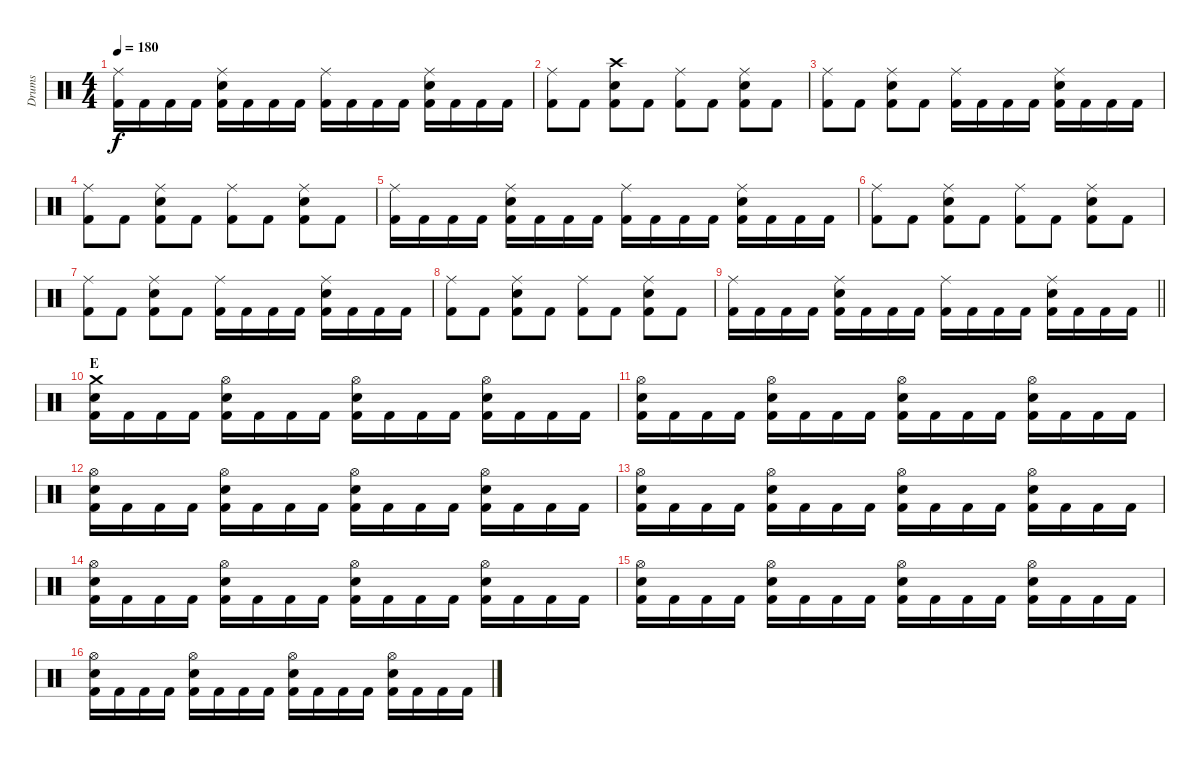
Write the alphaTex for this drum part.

\track ("Drums" "Drums") {instrument percussion}
\staff {score}
\articulation defaults
\ts (4 4)
\tempo 180
\clef neutral
\ks c
("Ride (middle)" "Kick (hit) 2").16{dy f} "Kick (hit) 2".16 "Kick (hit) 2".16 "Kick (hit) 2".16 ("Ride (middle)" "Electric Snare (hit)" "Kick (hit) 2").16 "Kick (hit) 2".16 "Kick (hit) 2".16 "Kick (hit) 2".16 ("Ride (middle)" "Kick (hit) 2").16 "Kick (hit) 2".16 "Kick (hit) 2".16 "Kick (hit) 2".16 ("Ride (middle)" "Electric Snare (hit)" "Kick (hit) 2").16 "Kick (hit) 2".16 "Kick (hit) 2".16 "Kick (hit) 2".16 |
("Ride (middle)" "Kick (hit) 2").8 "Kick (hit) 2".8 ("Crash high (hit)" "Electric Snare (hit)" "Kick (hit) 2").8 "Kick (hit) 2".8 ("Ride (middle)" "Kick (hit) 2").8 "Kick (hit) 2".8 ("Ride (middle)" "Electric Snare (hit)" "Kick (hit) 2").8 "Kick (hit) 2".8 |
("Ride (middle)" "Kick (hit) 2").8 "Kick (hit) 2".8 ("Ride (middle)" "Electric Snare (hit)" "Kick (hit) 2").8 "Kick (hit) 2".8 ("Ride (middle)" "Kick (hit) 2").16 "Kick (hit) 2".16 "Kick (hit) 2".16 "Kick (hit) 2".16 ("Ride (middle)" "Electric Snare (hit)" "Kick (hit) 2").16 "Kick (hit) 2".16 "Kick (hit) 2".16 "Kick (hit) 2".16 |
("Ride (middle)" "Kick (hit) 2").8 "Kick (hit) 2".8 ("Ride (middle)" "Electric Snare (hit)" "Kick (hit) 2").8 "Kick (hit) 2".8 ("Ride (middle)" "Kick (hit) 2").8 "Kick (hit) 2".8 ("Ride (middle)" "Electric Snare (hit)" "Kick (hit) 2").8 "Kick (hit) 2".8 |
("Ride (middle)" "Kick (hit) 2").16 "Kick (hit) 2".16 "Kick (hit) 2".16 "Kick (hit) 2".16 ("Ride (middle)" "Electric Snare (hit)" "Kick (hit) 2").16 "Kick (hit) 2".16 "Kick (hit) 2".16 "Kick (hit) 2".16 ("Ride (middle)" "Kick (hit) 2").16 "Kick (hit) 2".16 "Kick (hit) 2".16 "Kick (hit) 2".16 ("Ride (middle)" "Electric Snare (hit)" "Kick (hit) 2").16 "Kick (hit) 2".16 "Kick (hit) 2".16 "Kick (hit) 2".16 |
("Ride (middle)" "Kick (hit) 2").8 "Kick (hit) 2".8 ("Ride (middle)" "Electric Snare (hit)" "Kick (hit) 2").8 "Kick (hit) 2".8 ("Ride (middle)" "Kick (hit) 2").8 "Kick (hit) 2".8 ("Ride (middle)" "Electric Snare (hit)" "Kick (hit) 2").8 "Kick (hit) 2".8 |
("Ride (middle)" "Kick (hit) 2").8 "Kick (hit) 2".8 ("Ride (middle)" "Electric Snare (hit)" "Kick (hit) 2").8 "Kick (hit) 2".8 ("Ride (middle)" "Kick (hit) 2").16 "Kick (hit) 2".16 "Kick (hit) 2".16 "Kick (hit) 2".16 ("Ride (middle)" "Electric Snare (hit)" "Kick (hit) 2").16 "Kick (hit) 2".16 "Kick (hit) 2".16 "Kick (hit) 2".16 |
("Ride (middle)" "Kick (hit) 2").8 "Kick (hit) 2".8 ("Ride (middle)" "Electric Snare (hit)" "Kick (hit) 2").8 "Kick (hit) 2".8 ("Ride (middle)" "Kick (hit) 2").8 "Kick (hit) 2".8 ("Ride (middle)" "Electric Snare (hit)" "Kick (hit) 2").8 "Kick (hit) 2".8 |
\barLineRight lightlight
("Ride (middle)" "Kick (hit) 2").16 "Kick (hit) 2".16 "Kick (hit) 2".16 "Kick (hit) 2".16 ("Ride (middle)" "Electric Snare (hit)" "Kick (hit) 2").16 "Kick (hit) 2".16 "Kick (hit) 2".16 "Kick (hit) 2".16 ("Ride (middle)" "Kick (hit) 2").16 "Kick (hit) 2".16 "Kick (hit) 2".16 "Kick (hit) 2".16 ("Ride (middle)" "Electric Snare (hit)" "Kick (hit) 2").16 "Kick (hit) 2".16 "Kick (hit) 2".16 "Kick (hit) 2".16 |
\section ("" "E")
("Crash medium (hit)" "Electric Snare (hit)" "Kick (hit) 2").16 "Kick (hit) 2".16 "Kick (hit) 2".16 "Kick (hit) 2".16 ("Hi-Hat (open)" "Electric Snare (hit)" "Kick (hit) 2").16 "Kick (hit) 2".16 "Kick (hit) 2".16 "Kick (hit) 2".16 ("Hi-Hat (open)" "Electric Snare (hit)" "Kick (hit) 2").16 "Kick (hit) 2".16 "Kick (hit) 2".16 "Kick (hit) 2".16 ("Hi-Hat (open)" "Electric Snare (hit)" "Kick (hit) 2").16 "Kick (hit) 2".16 "Kick (hit) 2".16 "Kick (hit) 2".16 |
("Hi-Hat (open)" "Electric Snare (hit)" "Kick (hit) 2").16 "Kick (hit) 2".16 "Kick (hit) 2".16 "Kick (hit) 2".16 ("Hi-Hat (open)" "Electric Snare (hit)" "Kick (hit) 2").16 "Kick (hit) 2".16 "Kick (hit) 2".16 "Kick (hit) 2".16 ("Hi-Hat (open)" "Electric Snare (hit)" "Kick (hit) 2").16 "Kick (hit) 2".16 "Kick (hit) 2".16 "Kick (hit) 2".16 ("Hi-Hat (open)" "Electric Snare (hit)" "Kick (hit) 2").16 "Kick (hit) 2".16 "Kick (hit) 2".16 "Kick (hit) 2".16 |
("Hi-Hat (open)" "Electric Snare (hit)" "Kick (hit) 2").16 "Kick (hit) 2".16 "Kick (hit) 2".16 "Kick (hit) 2".16 ("Hi-Hat (open)" "Electric Snare (hit)" "Kick (hit) 2").16 "Kick (hit) 2".16 "Kick (hit) 2".16 "Kick (hit) 2".16 ("Hi-Hat (open)" "Electric Snare (hit)" "Kick (hit) 2").16 "Kick (hit) 2".16 "Kick (hit) 2".16 "Kick (hit) 2".16 ("Hi-Hat (open)" "Electric Snare (hit)" "Kick (hit) 2").16 "Kick (hit) 2".16 "Kick (hit) 2".16 "Kick (hit) 2".16 |
("Hi-Hat (open)" "Electric Snare (hit)" "Kick (hit) 2").16 "Kick (hit) 2".16 "Kick (hit) 2".16 "Kick (hit) 2".16 ("Hi-Hat (open)" "Electric Snare (hit)" "Kick (hit) 2").16 "Kick (hit) 2".16 "Kick (hit) 2".16 "Kick (hit) 2".16 ("Hi-Hat (open)" "Electric Snare (hit)" "Kick (hit) 2").16 "Kick (hit) 2".16 "Kick (hit) 2".16 "Kick (hit) 2".16 ("Hi-Hat (open)" "Electric Snare (hit)" "Kick (hit) 2").16 "Kick (hit) 2".16 "Kick (hit) 2".16 "Kick (hit) 2".16 |
("Hi-Hat (open)" "Electric Snare (hit)" "Kick (hit) 2").16 "Kick (hit) 2".16 "Kick (hit) 2".16 "Kick (hit) 2".16 ("Hi-Hat (open)" "Electric Snare (hit)" "Kick (hit) 2").16 "Kick (hit) 2".16 "Kick (hit) 2".16 "Kick (hit) 2".16 ("Hi-Hat (open)" "Electric Snare (hit)" "Kick (hit) 2").16 "Kick (hit) 2".16 "Kick (hit) 2".16 "Kick (hit) 2".16 ("Hi-Hat (open)" "Electric Snare (hit)" "Kick (hit) 2").16 "Kick (hit) 2".16 "Kick (hit) 2".16 "Kick (hit) 2".16 |
("Hi-Hat (open)" "Electric Snare (hit)" "Kick (hit) 2").16 "Kick (hit) 2".16 "Kick (hit) 2".16 "Kick (hit) 2".16 ("Hi-Hat (open)" "Electric Snare (hit)" "Kick (hit) 2").16 "Kick (hit) 2".16 "Kick (hit) 2".16 "Kick (hit) 2".16 ("Hi-Hat (open)" "Electric Snare (hit)" "Kick (hit) 2").16 "Kick (hit) 2".16 "Kick (hit) 2".16 "Kick (hit) 2".16 ("Hi-Hat (open)" "Electric Snare (hit)" "Kick (hit) 2").16 "Kick (hit) 2".16 "Kick (hit) 2".16 "Kick (hit) 2".16 |
("Hi-Hat (open)" "Electric Snare (hit)" "Kick (hit) 2").16 "Kick (hit) 2".16 "Kick (hit) 2".16 "Kick (hit) 2".16 ("Hi-Hat (open)" "Electric Snare (hit)" "Kick (hit) 2").16 "Kick (hit) 2".16 "Kick (hit) 2".16 "Kick (hit) 2".16 ("Hi-Hat (open)" "Electric Snare (hit)" "Kick (hit) 2").16 "Kick (hit) 2".16 "Kick (hit) 2".16 "Kick (hit) 2".16 ("Hi-Hat (open)" "Electric Snare (hit)" "Kick (hit) 2").16 "Kick (hit) 2".16 "Kick (hit) 2".16 "Kick (hit) 2".16
